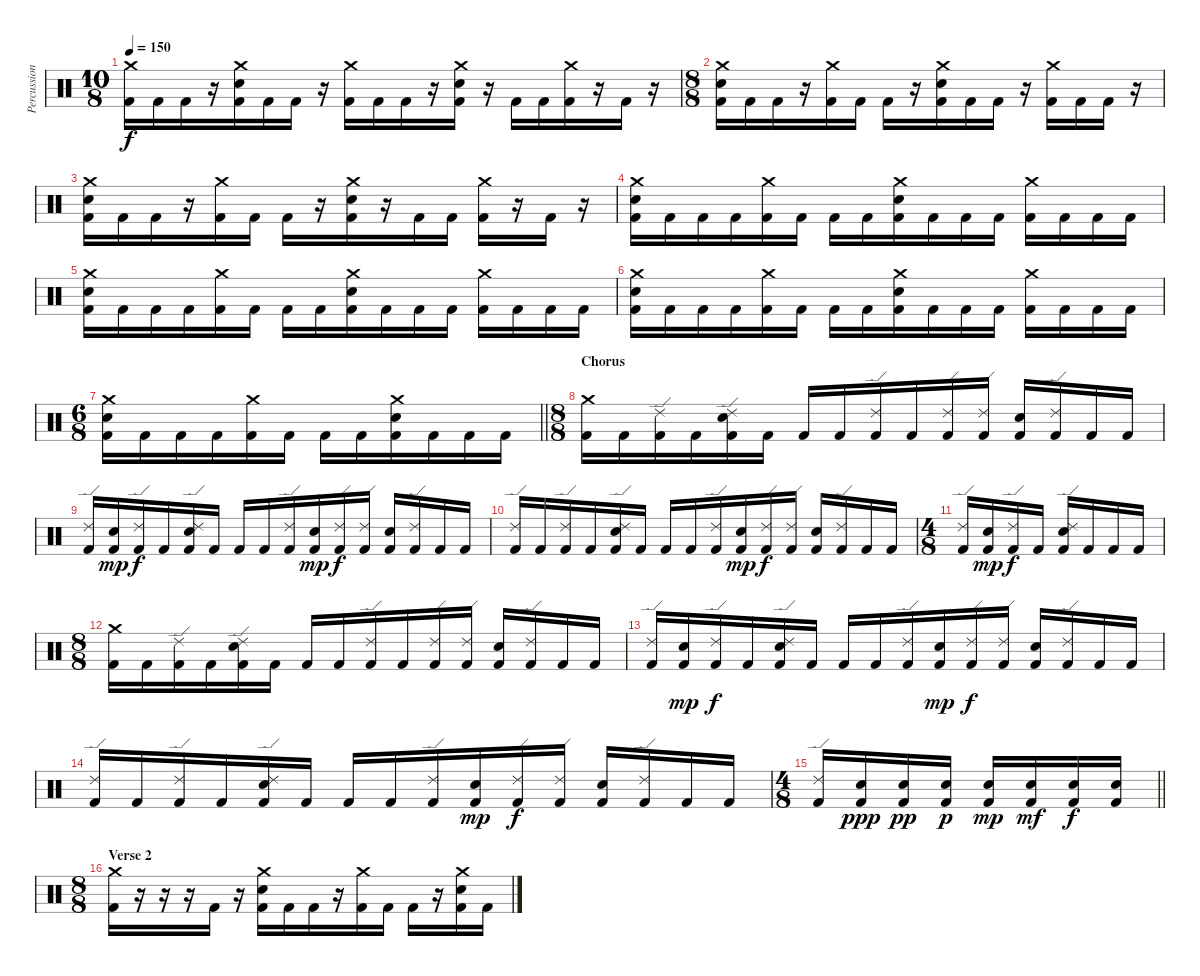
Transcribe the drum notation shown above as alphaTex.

\track ("Percussions" "Percussion") {instrument percussion}
\staff {score}
\articulation defaults
\ts (10 8)
\tempo 150
\clef neutral
\ks c
("Crash medium (hit)" "Kick (hit) 2").16{dy f} "Kick (hit) 2".16 "Kick (hit) 2".16 r.16 ("Crash medium (hit)" "Electric Snare (hit)" "Kick (hit) 2").16 "Kick (hit) 2".16 "Kick (hit) 2".16 r.16 ("Crash medium (hit)" "Kick (hit) 2").16 "Kick (hit) 2".16 "Kick (hit) 2".16 r.16 ("Crash medium (hit)" "Electric Snare (hit)" "Kick (hit) 2").16 r.16 "Kick (hit) 2".16 "Kick (hit) 2".16 ("Crash medium (hit)" "Kick (hit) 2").16 r.16 "Kick (hit) 2".16 r.16 |
\ts (8 8)
("Crash medium (hit)" "Electric Snare (hit)" "Kick (hit) 2").16 "Kick (hit) 2".16 "Kick (hit) 2".16 r.16 ("Crash medium (hit)" "Kick (hit) 2").16 "Kick (hit) 2".16 "Kick (hit) 2".16 r.16 ("Crash medium (hit)" "Electric Snare (hit)" "Kick (hit) 2").16 "Kick (hit) 2".16 "Kick (hit) 2".16 r.16 ("Crash medium (hit)" "Kick (hit) 2").16 "Kick (hit) 2".16 "Kick (hit) 2".16 r.16 |
("Crash medium (hit)" "Electric Snare (hit)" "Kick (hit) 2").16 "Kick (hit) 2".16 "Kick (hit) 2".16 r.16 ("Crash medium (hit)" "Kick (hit) 2").16 "Kick (hit) 2".16 "Kick (hit) 2".16 r.16 ("Crash medium (hit)" "Electric Snare (hit)" "Kick (hit) 2").16 r.16 "Kick (hit) 2".16 "Kick (hit) 2".16 ("Crash medium (hit)" "Kick (hit) 2").16 r.16 "Kick (hit) 2".16 r.16 |
("Crash medium (hit)" "Electric Snare (hit)" "Kick (hit) 2").16 "Kick (hit) 2".16 "Kick (hit) 2".16 "Kick (hit) 2".16 ("Crash medium (hit)" "Kick (hit) 2").16 "Kick (hit) 2".16 "Kick (hit) 2".16 "Kick (hit) 2".16 ("Crash medium (hit)" "Electric Snare (hit)" "Kick (hit) 2").16 "Kick (hit) 2".16 "Kick (hit) 2".16 "Kick (hit) 2".16 ("Crash medium (hit)" "Kick (hit) 2").16 "Kick (hit) 2".16 "Kick (hit) 2".16 "Kick (hit) 2".16 |
("Crash medium (hit)" "Electric Snare (hit)" "Kick (hit) 2").16 "Kick (hit) 2".16 "Kick (hit) 2".16 "Kick (hit) 2".16 ("Crash medium (hit)" "Kick (hit) 2").16 "Kick (hit) 2".16 "Kick (hit) 2".16 "Kick (hit) 2".16 ("Crash medium (hit)" "Electric Snare (hit)" "Kick (hit) 2").16 "Kick (hit) 2".16 "Kick (hit) 2".16 "Kick (hit) 2".16 ("Crash medium (hit)" "Kick (hit) 2").16 "Kick (hit) 2".16 "Kick (hit) 2".16 "Kick (hit) 2".16 |
("Crash medium (hit)" "Electric Snare (hit)" "Kick (hit) 2").16 "Kick (hit) 2".16 "Kick (hit) 2".16 "Kick (hit) 2".16 ("Crash medium (hit)" "Kick (hit) 2").16 "Kick (hit) 2".16 "Kick (hit) 2".16 "Kick (hit) 2".16 ("Crash medium (hit)" "Electric Snare (hit)" "Kick (hit) 2").16 "Kick (hit) 2".16 "Kick (hit) 2".16 "Kick (hit) 2".16 ("Crash medium (hit)" "Kick (hit) 2").16 "Kick (hit) 2".16 "Kick (hit) 2".16 "Kick (hit) 2".16 |
\ts (6 8)
\barLineRight lightlight
("Crash medium (hit)" "Electric Snare (hit)" "Kick (hit) 2").16 "Kick (hit) 2".16 "Kick (hit) 2".16 "Kick (hit) 2".16 ("Crash medium (hit)" "Kick (hit) 2").16 "Kick (hit) 2".16 "Kick (hit) 2".16 "Kick (hit) 2".16 ("Crash medium (hit)" "Electric Snare (hit)" "Kick (hit) 2").16 "Kick (hit) 2".16 "Kick (hit) 2".16 "Kick (hit) 2".16 |
\ts (8 8)
\section ("" "Chorus")
("Crash medium (hit)" "Kick (hit) 2").16 "Kick (hit) 2".16 ("Ride (edge) 2" "Kick (hit) 2").16 "Kick (hit) 2".16 ("Ride (edge) 2" "Electric Snare (hit)" "Kick (hit) 2").16 "Kick (hit) 2".16 "Kick (hit) 2".16 "Kick (hit) 2".16 ("Ride (edge) 2" "Kick (hit) 2").16 "Kick (hit) 2".16 ("Ride (edge) 2" "Kick (hit) 2").16 ("Ride (edge) 2" "Kick (hit) 2").16 ("Electric Snare (hit)" "Kick (hit) 2").16 ("Ride (edge) 2" "Kick (hit) 2").16 "Kick (hit) 2".16 "Kick (hit) 2".16 |
("Ride (edge) 2" "Kick (hit) 2").16 ("Electric Snare (hit)" "Kick (hit) 2").16{dy mp} ("Ride (edge) 2" "Kick (hit) 2").16{dy f} "Kick (hit) 2".16 ("Ride (edge) 2" "Electric Snare (hit)" "Kick (hit) 2").16 "Kick (hit) 2".16 "Kick (hit) 2".16 "Kick (hit) 2".16 ("Ride (edge) 2" "Kick (hit) 2").16 ("Electric Snare (hit)" "Kick (hit) 2").16{dy mp} ("Ride (edge) 2" "Kick (hit) 2").16{dy f} ("Ride (edge) 2" "Kick (hit) 2").16 ("Electric Snare (hit)" "Kick (hit) 2").16 ("Ride (edge) 2" "Kick (hit) 2").16 "Kick (hit) 2".16 "Kick (hit) 2".16 |
("Ride (edge) 2" "Kick (hit) 2").16 "Kick (hit) 2".16 ("Ride (edge) 2" "Kick (hit) 2").16 "Kick (hit) 2".16 ("Ride (edge) 2" "Electric Snare (hit)" "Kick (hit) 2").16 "Kick (hit) 2".16 "Kick (hit) 2".16 "Kick (hit) 2".16 ("Ride (edge) 2" "Kick (hit) 2").16 ("Electric Snare (hit)" "Kick (hit) 2").16{dy mp} ("Ride (edge) 2" "Kick (hit) 2").16{dy f} ("Ride (edge) 2" "Kick (hit) 2").16 ("Electric Snare (hit)" "Kick (hit) 2").16 ("Ride (edge) 2" "Kick (hit) 2").16 "Kick (hit) 2".16 "Kick (hit) 2".16 |
\ts (4 8)
("Ride (edge) 2" "Kick (hit) 2").16 ("Electric Snare (hit)" "Kick (hit) 2").16{dy mp} ("Ride (edge) 2" "Kick (hit) 2").16{dy f} "Kick (hit) 2".16 ("Ride (edge) 2" "Electric Snare (hit)" "Kick (hit) 2").16 "Kick (hit) 2".16 "Kick (hit) 2".16 "Kick (hit) 2".16 |
\ts (8 8)
("Crash medium (hit)" "Kick (hit) 2").16 "Kick (hit) 2".16 ("Ride (edge) 2" "Kick (hit) 2").16 "Kick (hit) 2".16 ("Ride (edge) 2" "Electric Snare (hit)" "Kick (hit) 2").16 "Kick (hit) 2".16 "Kick (hit) 2".16 "Kick (hit) 2".16 ("Ride (edge) 2" "Kick (hit) 2").16 "Kick (hit) 2".16 ("Ride (edge) 2" "Kick (hit) 2").16 ("Ride (edge) 2" "Kick (hit) 2").16 ("Electric Snare (hit)" "Kick (hit) 2").16 ("Ride (edge) 2" "Kick (hit) 2").16 "Kick (hit) 2".16 "Kick (hit) 2".16 |
("Ride (edge) 2" "Kick (hit) 2").16 ("Electric Snare (hit)" "Kick (hit) 2").16{dy mp} ("Ride (edge) 2" "Kick (hit) 2").16{dy f} "Kick (hit) 2".16 ("Ride (edge) 2" "Electric Snare (hit)" "Kick (hit) 2").16 "Kick (hit) 2".16 "Kick (hit) 2".16 "Kick (hit) 2".16 ("Ride (edge) 2" "Kick (hit) 2").16 ("Electric Snare (hit)" "Kick (hit) 2").16{dy mp} ("Ride (edge) 2" "Kick (hit) 2").16{dy f} ("Ride (edge) 2" "Kick (hit) 2").16 ("Electric Snare (hit)" "Kick (hit) 2").16 ("Ride (edge) 2" "Kick (hit) 2").16 "Kick (hit) 2".16 "Kick (hit) 2".16 |
("Ride (edge) 2" "Kick (hit) 2").16 "Kick (hit) 2".16 ("Ride (edge) 2" "Kick (hit) 2").16 "Kick (hit) 2".16 ("Ride (edge) 2" "Electric Snare (hit)" "Kick (hit) 2").16 "Kick (hit) 2".16 "Kick (hit) 2".16 "Kick (hit) 2".16 ("Ride (edge) 2" "Kick (hit) 2").16 ("Electric Snare (hit)" "Kick (hit) 2").16{dy mp} ("Ride (edge) 2" "Kick (hit) 2").16{dy f} ("Ride (edge) 2" "Kick (hit) 2").16 ("Electric Snare (hit)" "Kick (hit) 2").16 ("Ride (edge) 2" "Kick (hit) 2").16 "Kick (hit) 2".16 "Kick (hit) 2".16 |
\ts (4 8)
\barLineRight lightlight
("Ride (edge) 2" "Kick (hit) 2").16 ("Electric Snare (hit)" "Kick (hit) 2").16{dy ppp} ("Electric Snare (hit)" "Kick (hit) 2").16{dy pp} ("Electric Snare (hit)" "Kick (hit) 2").16{dy p} ("Electric Snare (hit)" "Kick (hit) 2").16{dy mp} ("Electric Snare (hit)" "Kick (hit) 2").16{dy mf} ("Electric Snare (hit)" "Kick (hit) 2").16{dy f} ("Electric Snare (hit)" "Kick (hit) 2").16 |
\ts (8 8)
\section ("" "Verse 2")
("Crash medium (hit)" "Kick (hit) 2").16 r.16 r.16 r.16 "Kick (hit) 2".16 r.16 ("Crash medium (hit)" "Electric Snare (hit)" "Kick (hit) 2").16 "Kick (hit) 2".16 "Kick (hit) 2".16 r.16 ("Crash medium (hit)" "Kick (hit) 2").16 "Kick (hit) 2".16 "Kick (hit) 2".16 r.16 ("Crash medium (hit)" "Electric Snare (hit)" "Kick (hit) 2").16 "Kick (hit) 2".16
